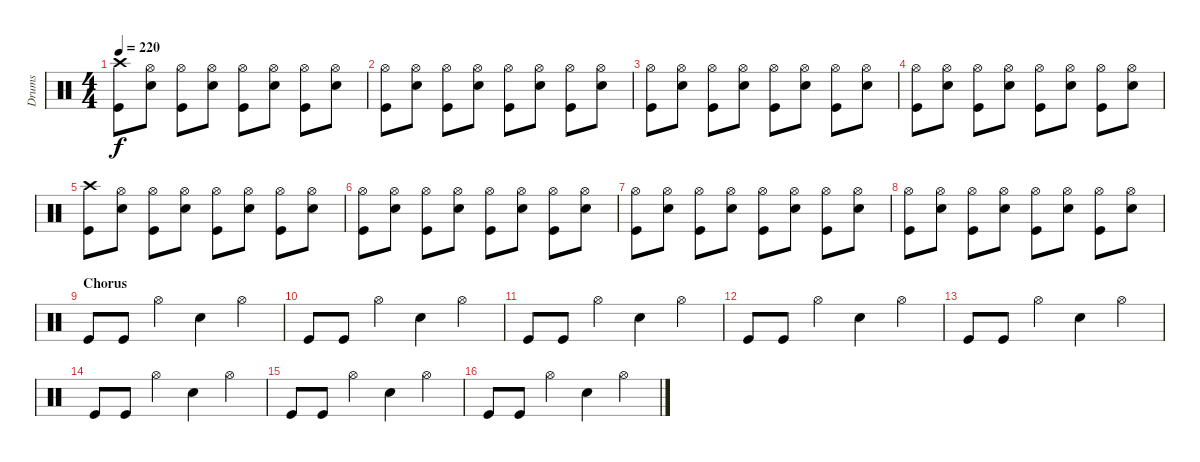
\track ("Drums" "Drums") {instrument percussion}
\staff {score}
\articulation defaults
\ts (4 4)
\tempo 220
\clef neutral
\ks c
("Crash high (hit)" "Kick (hit)").8{dy f} ("Hi-Hat (open)" "Electric Snare (hit)").8 ("Hi-Hat (open)" "Kick (hit)").8 ("Hi-Hat (open)" "Electric Snare (hit)").8 ("Hi-Hat (open)" "Kick (hit)").8 ("Hi-Hat (open)" "Electric Snare (hit)").8 ("Hi-Hat (open)" "Kick (hit)").8 ("Hi-Hat (open)" "Electric Snare (hit)").8 |
("Hi-Hat (open)" "Kick (hit)").8 ("Hi-Hat (open)" "Electric Snare (hit)").8 ("Hi-Hat (open)" "Kick (hit)").8 ("Hi-Hat (open)" "Electric Snare (hit)").8 ("Hi-Hat (open)" "Kick (hit)").8 ("Hi-Hat (open)" "Electric Snare (hit)").8 ("Hi-Hat (open)" "Kick (hit)").8 ("Hi-Hat (open)" "Electric Snare (hit)").8 |
("Hi-Hat (open)" "Kick (hit)").8 ("Hi-Hat (open)" "Electric Snare (hit)").8 ("Hi-Hat (open)" "Kick (hit)").8 ("Hi-Hat (open)" "Electric Snare (hit)").8 ("Hi-Hat (open)" "Kick (hit)").8 ("Hi-Hat (open)" "Electric Snare (hit)").8 ("Hi-Hat (open)" "Kick (hit)").8 ("Hi-Hat (open)" "Electric Snare (hit)").8 |
("Hi-Hat (open)" "Kick (hit)").8 ("Hi-Hat (open)" "Electric Snare (hit)").8 ("Hi-Hat (open)" "Kick (hit)").8 ("Hi-Hat (open)" "Electric Snare (hit)").8 ("Hi-Hat (open)" "Kick (hit)").8 ("Hi-Hat (open)" "Electric Snare (hit)").8 ("Hi-Hat (open)" "Kick (hit)").8 ("Hi-Hat (open)" "Electric Snare (hit)").8 |
("Crash high (hit)" "Kick (hit)").8 ("Hi-Hat (open)" "Electric Snare (hit)").8 ("Hi-Hat (open)" "Kick (hit)").8 ("Hi-Hat (open)" "Electric Snare (hit)").8 ("Hi-Hat (open)" "Kick (hit)").8 ("Hi-Hat (open)" "Electric Snare (hit)").8 ("Hi-Hat (open)" "Kick (hit)").8 ("Hi-Hat (open)" "Electric Snare (hit)").8 |
("Hi-Hat (open)" "Kick (hit)").8 ("Hi-Hat (open)" "Electric Snare (hit)").8 ("Hi-Hat (open)" "Kick (hit)").8 ("Hi-Hat (open)" "Electric Snare (hit)").8 ("Hi-Hat (open)" "Kick (hit)").8 ("Hi-Hat (open)" "Electric Snare (hit)").8 ("Hi-Hat (open)" "Kick (hit)").8 ("Hi-Hat (open)" "Electric Snare (hit)").8 |
("Hi-Hat (open)" "Kick (hit)").8 ("Hi-Hat (open)" "Electric Snare (hit)").8 ("Hi-Hat (open)" "Kick (hit)").8 ("Hi-Hat (open)" "Electric Snare (hit)").8 ("Hi-Hat (open)" "Kick (hit)").8 ("Hi-Hat (open)" "Electric Snare (hit)").8 ("Hi-Hat (open)" "Kick (hit)").8 ("Hi-Hat (open)" "Electric Snare (hit)").8 |
("Hi-Hat (open)" "Kick (hit)").8 ("Hi-Hat (open)" "Electric Snare (hit)").8 ("Hi-Hat (open)" "Kick (hit)").8 ("Hi-Hat (open)" "Electric Snare (hit)").8 ("Hi-Hat (open)" "Kick (hit)").8 ("Hi-Hat (open)" "Electric Snare (hit)").8 ("Hi-Hat (open)" "Kick (hit)").8 ("Hi-Hat (open)" "Electric Snare (hit)").8 |
\section ("" "Chorus")
"Kick (hit)".8 "Kick (hit)".8 "Hi-Hat (open)".4 "Electric Snare (hit)".4 "Hi-Hat (open)".4 |
"Kick (hit)".8 "Kick (hit)".8 "Hi-Hat (open)".4 "Electric Snare (hit)".4 "Hi-Hat (open)".4 |
"Kick (hit)".8 "Kick (hit)".8 "Hi-Hat (open)".4 "Electric Snare (hit)".4 "Hi-Hat (open)".4 |
"Kick (hit)".8 "Kick (hit)".8 "Hi-Hat (open)".4 "Electric Snare (hit)".4 "Hi-Hat (open)".4 |
"Kick (hit)".8 "Kick (hit)".8 "Hi-Hat (open)".4 "Electric Snare (hit)".4 "Hi-Hat (open)".4 |
"Kick (hit)".8 "Kick (hit)".8 "Hi-Hat (open)".4 "Electric Snare (hit)".4 "Hi-Hat (open)".4 |
"Kick (hit)".8 "Kick (hit)".8 "Hi-Hat (open)".4 "Electric Snare (hit)".4 "Hi-Hat (open)".4 |
"Kick (hit)".8 "Kick (hit)".8 "Hi-Hat (open)".4 "Electric Snare (hit)".4 "Hi-Hat (open)".4
